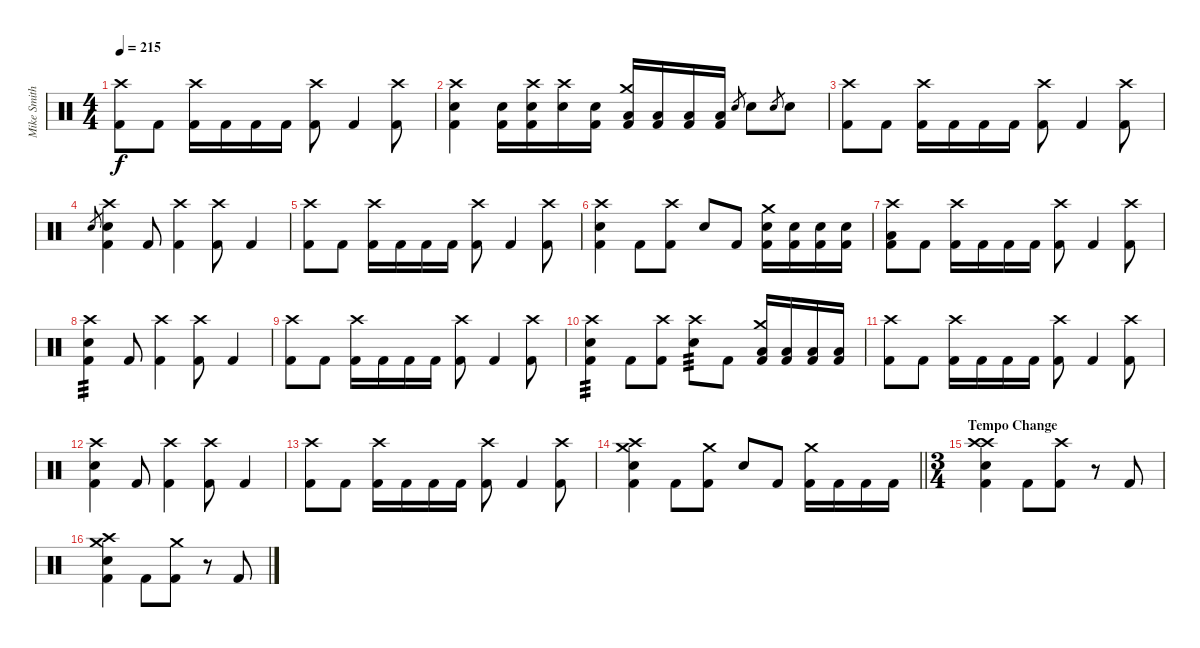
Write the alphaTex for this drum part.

\track ("Mike Smith (Suffocation)" "Mike Smith") {instrument percussion}
\staff {score}
\articulation defaults
\ts (4 4)
\tempo 215
\clef neutral
\ks c
("Crash high (hit)" "Kick (hit) 2").8{dy f} "Kick (hit) 2".8 ("Crash high (hit)" "Kick (hit) 2").16 "Kick (hit) 2".16 "Kick (hit) 2".16 "Kick (hit) 2".16 ("Crash high (hit)" "Kick (hit) 2").8 "Kick (hit) 2".4 ("Crash high (hit)" "Kick (hit) 2").8 |
("Crash high (hit)" "Snare (hit) 2" "Kick (hit) 2").4 ("Snare (hit) 2" "Kick (hit) 2").16 ("Crash high (hit)" "Snare (hit) 2" "Kick (hit) 2").16 ("Crash high (hit)" "Snare (hit) 2").16 ("Snare (hit) 2" "Kick (hit) 2").16 ("Crash medium (hit)" "Low Tom (hit)" "Kick (hit) 2").16 ("Low Tom (hit)" "Kick (hit) 2").16 ("Low Tom (hit)" "Kick (hit) 2").16 ("Low Tom (hit)" "Kick (hit) 2").16 "Snare (hit) 2".8{gr} "Snare (hit) 2".8 "Snare (hit) 2".8{gr} "Snare (hit) 2".8 |
("Crash high (hit)" "Kick (hit) 2").8{volume 16} "Kick (hit) 2".8 ("Crash high (hit)" "Kick (hit) 2").16 "Kick (hit) 2".16 "Kick (hit) 2".16 "Kick (hit) 2".16 ("Crash high (hit)" "Kick (hit) 2").8 "Kick (hit) 2".4 ("Crash high (hit)" "Kick (hit) 2").8 |
"Snare (hit) 2".8{gr} ("Crash high (hit)" "Snare (hit) 2" "Kick (hit) 2").4 "Kick (hit) 2".8 ("Crash high (hit)" "Kick (hit) 2").4 ("Crash high (hit)" "Kick (hit) 2").8 "Kick (hit) 2".4 |
("Crash high (hit)" "Kick (hit) 2").8{volume 16} "Kick (hit) 2".8 ("Crash high (hit)" "Kick (hit) 2").16 "Kick (hit) 2".16 "Kick (hit) 2".16 "Kick (hit) 2".16 ("Crash high (hit)" "Kick (hit) 2").8 "Kick (hit) 2".4 ("Crash high (hit)" "Kick (hit) 2").8 |
("Crash high (hit)" "Snare (hit) 2" "Kick (hit) 2").4 "Kick (hit) 2".8 ("Crash high (hit)" "Kick (hit) 2").8 "Snare (hit) 2".8 "Kick (hit) 2".8 ("Crash medium (hit)" "Snare (hit) 2" "Kick (hit) 2").16 ("Snare (hit) 2" "Kick (hit) 2").16 ("Snare (hit) 2" "Kick (hit) 2").16 ("Snare (hit) 2" "Kick (hit) 2").16 |
("Crash high (hit)" "Low Tom (hit)" "Kick (hit) 2").8{volume 16} "Kick (hit) 2".8 ("Crash high (hit)" "Kick (hit) 2").16 "Kick (hit) 2".16 "Kick (hit) 2".16 "Kick (hit) 2".16 ("Crash high (hit)" "Kick (hit) 2").8 "Kick (hit) 2".4 ("Crash high (hit)" "Kick (hit) 2").8 |
("Crash high (hit)" "Snare (hit) 2" "Kick (hit) 2").4{tp 3} "Kick (hit) 2".8 ("Crash high (hit)" "Kick (hit) 2").4 ("Crash high (hit)" "Kick (hit) 2").8 "Kick (hit) 2".4 |
("Crash high (hit)" "Kick (hit) 2").8 "Kick (hit) 2".8 ("Crash high (hit)" "Kick (hit) 2").16 "Kick (hit) 2".16 "Kick (hit) 2".16 "Kick (hit) 2".16 ("Crash high (hit)" "Kick (hit) 2").8 "Kick (hit) 2".4 ("Crash high (hit)" "Kick (hit) 2").8 |
("Crash high (hit)" "Snare (hit) 2" "Kick (hit) 2").4{tp 3} "Kick (hit) 2".8 ("Crash high (hit)" "Kick (hit) 2").8 ("Crash high (hit)" "Snare (hit) 2").8{tp 3} "Kick (hit) 2".8 ("Crash medium (hit)" "Low Tom (hit)" "Kick (hit) 2").16 ("Low Tom (hit)" "Kick (hit) 2").16 ("Low Tom (hit)" "Kick (hit) 2").16 ("Low Tom (hit)" "Kick (hit) 2").16 |
("Crash high (hit)" "Kick (hit) 2").8{volume 16} "Kick (hit) 2".8 ("Crash high (hit)" "Kick (hit) 2").16 "Kick (hit) 2".16 "Kick (hit) 2".16 "Kick (hit) 2".16 ("Crash high (hit)" "Kick (hit) 2").8 "Kick (hit) 2".4 ("Crash high (hit)" "Kick (hit) 2").8 |
("Crash high (hit)" "Snare (hit) 2" "Kick (hit) 2").4 "Kick (hit) 2".8 ("Crash high (hit)" "Kick (hit) 2").4 ("Crash high (hit)" "Kick (hit) 2").8 "Kick (hit) 2".4 |
("Crash high (hit)" "Kick (hit) 2").8{volume 16} "Kick (hit) 2".8 ("Crash high (hit)" "Kick (hit) 2").16 "Kick (hit) 2".16 "Kick (hit) 2".16 "Kick (hit) 2".16 ("Crash high (hit)" "Kick (hit) 2").8 "Kick (hit) 2".4 ("Crash high (hit)" "Kick (hit) 2").8 |
\barLineRight lightlight
("Crash medium (hit)" "Crash high (hit)" "Snare (hit) 2" "Kick (hit) 2").4 "Kick (hit) 2".8 ("Crash medium (hit)" "Kick (hit) 2").8 "Snare (hit) 2".8 "Kick (hit) 2".8 ("Crash medium (hit)" "Kick (hit) 2").16 "Kick (hit) 2".16 "Kick (hit) 2".16 "Kick (hit) 2".16 |
\ts (3 4)
\section ("" "Tempo Change")
("Crash high (hit)" "Crash high (hit)" "Snare (hit) 2" "Kick (hit) 2").4 "Kick (hit) 2".8 ("Crash high (hit)" "Kick (hit) 2").8 r.8 "Kick (hit) 2".8 |
("Crash medium (hit)" "Crash high (hit)" "Snare (hit) 2" "Kick (hit) 2").4 "Kick (hit) 2".8 ("Crash medium (hit)" "Kick (hit) 2").8 r.8 "Kick (hit) 2".8
